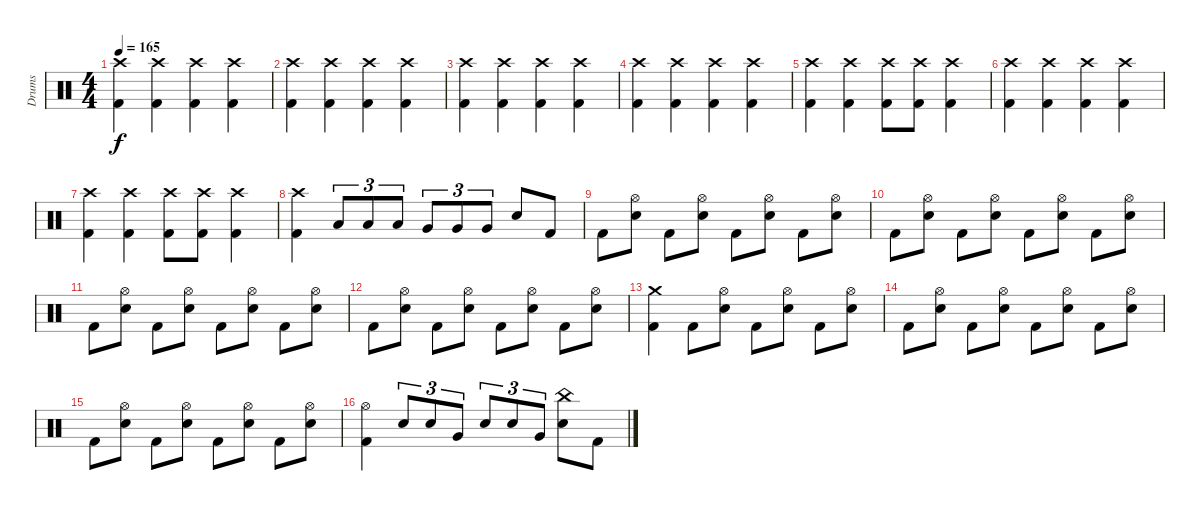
\track ("Drums" "Drums") {instrument percussion}
\staff {score}
\articulation defaults
\ts (4 4)
\tempo 165
\clef neutral
\ks c
("Crash high (hit)" "Kick (hit) 2").4{dy f} ("Crash high (hit)" "Kick (hit) 2").4 ("Crash high (hit)" "Kick (hit) 2").4 ("Crash high (hit)" "Kick (hit) 2").4 |
("Crash high (hit)" "Kick (hit) 2").4 ("Crash high (hit)" "Kick (hit) 2").4 ("Crash high (hit)" "Kick (hit) 2").4 ("Crash high (hit)" "Kick (hit) 2").4 |
("Crash high (hit)" "Kick (hit) 2").4 ("Crash high (hit)" "Kick (hit) 2").4 ("Crash high (hit)" "Kick (hit) 2").4 ("Crash high (hit)" "Kick (hit) 2").4 |
("Crash high (hit)" "Kick (hit) 2").4 ("Crash high (hit)" "Kick (hit) 2").4 ("Crash high (hit)" "Kick (hit) 2").4 ("Crash high (hit)" "Kick (hit) 2").4 |
("Crash high (hit)" "Kick (hit) 2").4 ("Crash high (hit)" "Kick (hit) 2").4 ("Crash high (hit)" "Kick (hit) 2").8 ("Crash high (hit)" "Kick (hit) 2").8 ("Crash high (hit)" "Kick (hit) 2").4 |
("Crash high (hit)" "Kick (hit) 2").4 ("Crash high (hit)" "Kick (hit) 2").4 ("Crash high (hit)" "Kick (hit) 2").4 ("Crash high (hit)" "Kick (hit) 2").4 |
("Crash high (hit)" "Kick (hit) 2").4 ("Crash high (hit)" "Kick (hit) 2").4 ("Crash high (hit)" "Kick (hit) 2").8 ("Crash high (hit)" "Kick (hit) 2").8 ("Crash high (hit)" "Kick (hit) 2").4 |
("Crash high (hit)" "Kick (hit) 2").4 "Low Tom (hit)".8{tu (3 2)} "Low Tom (hit)".8{tu (3 2)} "Low Tom (hit)".8{tu (3 2)} "Very Low Tom (hit)".8{tu (3 2)} "Very Low Tom (hit)".8{tu (3 2)} "Very Low Tom (hit)".8{tu (3 2)} "Snare (hit) 2".8 "Kick (hit) 2".8 |
"Kick (hit) 2".8 ("Hi-Hat (open)" "Snare (hit) 2").8 "Kick (hit) 2".8 ("Hi-Hat (open)" "Snare (hit) 2").8 "Kick (hit) 2".8 ("Hi-Hat (open)" "Snare (hit) 2").8 "Kick (hit) 2".8 ("Hi-Hat (open)" "Snare (hit) 2").8 |
"Kick (hit) 2".8 ("Hi-Hat (open)" "Snare (hit) 2").8 "Kick (hit) 2".8 ("Hi-Hat (open)" "Snare (hit) 2").8 "Kick (hit) 2".8 ("Hi-Hat (open)" "Snare (hit) 2").8 "Kick (hit) 2".8 ("Hi-Hat (open)" "Snare (hit) 2").8 |
"Kick (hit) 2".8 ("Hi-Hat (open)" "Snare (hit) 2").8 "Kick (hit) 2".8 ("Hi-Hat (open)" "Snare (hit) 2").8 "Kick (hit) 2".8 ("Hi-Hat (open)" "Snare (hit) 2").8 "Kick (hit) 2".8 ("Hi-Hat (open)" "Snare (hit) 2").8 |
"Kick (hit) 2".8 ("Hi-Hat (open)" "Snare (hit) 2").8 "Kick (hit) 2".8 ("Hi-Hat (open)" "Snare (hit) 2").8 "Kick (hit) 2".8 ("Hi-Hat (open)" "Snare (hit) 2").8 "Kick (hit) 2".8 ("Hi-Hat (open)" "Snare (hit) 2").8 |
("Crash medium (hit)" "Kick (hit) 2").4 "Kick (hit) 2".8 ("Hi-Hat (open)" "Snare (hit) 2").8 "Kick (hit) 2".8 ("Hi-Hat (open)" "Snare (hit) 2").8 "Kick (hit) 2".8 ("Hi-Hat (open)" "Snare (hit) 2").8 |
"Kick (hit) 2".8 ("Hi-Hat (open)" "Snare (hit) 2").8 "Kick (hit) 2".8 ("Hi-Hat (open)" "Snare (hit) 2").8 "Kick (hit) 2".8 ("Hi-Hat (open)" "Snare (hit) 2").8 "Kick (hit) 2".8 ("Hi-Hat (open)" "Snare (hit) 2").8 |
"Kick (hit) 2".8 ("Hi-Hat (open)" "Snare (hit) 2").8 "Kick (hit) 2".8 ("Hi-Hat (open)" "Snare (hit) 2").8 "Kick (hit) 2".8 ("Hi-Hat (open)" "Snare (hit) 2").8 "Kick (hit) 2".8 ("Hi-Hat (open)" "Snare (hit) 2").8 |
("Hi-Hat (open)" "Kick (hit) 2").4 "Snare (hit) 2".8{tu (3 2)} "Snare (hit) 2".8{tu (3 2)} "Very Low Tom (hit)".8{tu (3 2)} "Snare (hit) 2".8{tu (3 2)} "Snare (hit) 2".8{tu (3 2)} "Very Low Tom (hit)".8{tu (3 2)} ("China (hit)" "Snare (hit) 2").8 "Kick (hit) 2".8
